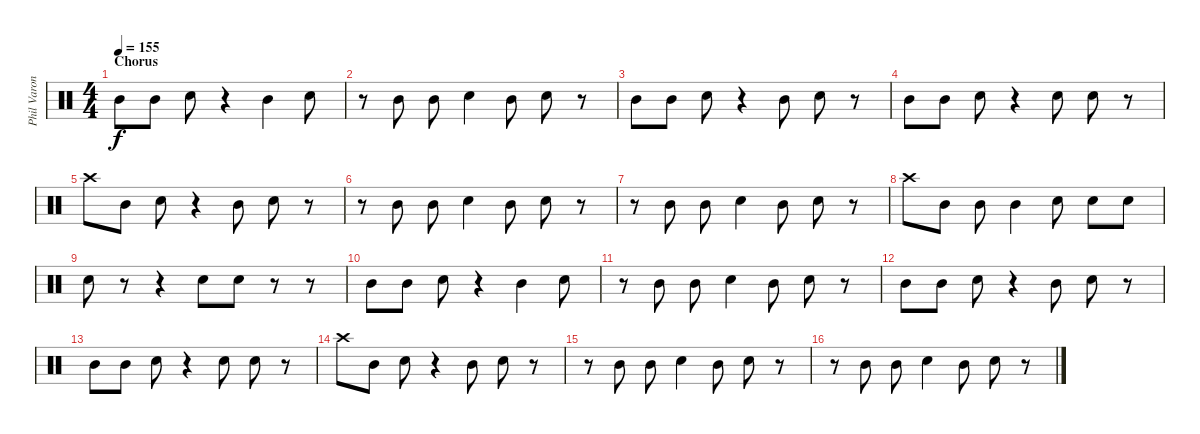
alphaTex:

\track ("Phil Varone" "Phil Varon") {instrument percussion}
\staff {score}
\articulation defaults
\ts (4 4)
\section ("" "Chorus")
\tempo 155
\clef neutral
\ks c "Mid Tom (hit)".8{dy f} "Mid Tom (hit)".8 "Snare (hit) 2".8
r.4 "Mid Tom (hit)".4 "Snare (hit) 2".8 |
r.8 "Mid Tom (hit)".8 "Mid Tom (hit)".8 "Snare (hit) 2".4 "Mid Tom (hit)".8 "Snare (hit) 2".8 r.8 |
"Mid Tom (hit)".8 "Mid Tom (hit)".8 "Snare (hit) 2".8 r.4 "Mid Tom (hit)".8 "Snare (hit) 2".8 r.8 |
"Mid Tom (hit)".8 "Mid Tom (hit)".8 "Snare (hit) 2".8 r.4 "Snare (hit) 2".8 "Snare (hit) 2".8 r.8 |
"Crash high (hit)".8 "Mid Tom (hit)".8 "Snare (hit) 2".8 r.4 "Mid Tom (hit)".8 "Snare (hit) 2".8 r.8 |
r.8 "Mid Tom (hit)".8 "Mid Tom (hit)".8 "Snare (hit) 2".4 "Mid Tom (hit)".8 "Snare (hit) 2".8 r.8 |
r.8 "Mid Tom (hit)".8 "Mid Tom (hit)".8 "Snare (hit) 2".4 "Mid Tom (hit)".8 "Snare (hit) 2".8 r.8 |
"Crash high (hit)".8 "Mid Tom (hit)".8 "Mid Tom (hit)".8 "Mid Tom (hit)".4 "Snare (hit) 2".8 "Snare (hit) 2".8 "Snare (hit) 2".8 |
"Snare (hit) 2".8 r.8 r.4 "Snare (hit) 2".8 "Snare (hit) 2".8 r.8 r.8 |
"Mid Tom (hit)".8 "Mid Tom (hit)".8 "Snare (hit) 2".8 r.4 "Mid Tom (hit)".4 "Snare (hit) 2".8 |
r.8 "Mid Tom (hit)".8 "Mid Tom (hit)".8 "Snare (hit) 2".4 "Mid Tom (hit)".8 "Snare (hit) 2".8 r.8 |
"Mid Tom (hit)".8 "Mid Tom (hit)".8 "Snare (hit) 2".8 r.4 "Mid Tom (hit)".8 "Snare (hit) 2".8 r.8 |
"Mid Tom (hit)".8 "Mid Tom (hit)".8 "Snare (hit) 2".8 r.4 "Snare (hit) 2".8 "Snare (hit) 2".8 r.8 |
"Crash high (hit)".8 "Mid Tom (hit)".8 "Snare (hit) 2".8 r.4 "Mid Tom (hit)".8 "Snare (hit) 2".8 r.8 |
r.8 "Mid Tom (hit)".8 "Mid Tom (hit)".8 "Snare (hit) 2".4 "Mid Tom (hit)".8 "Snare (hit) 2".8 r.8 |
r.8 "Mid Tom (hit)".8 "Mid Tom (hit)".8 "Snare (hit) 2".4 "Mid Tom (hit)".8 "Snare (hit) 2".8 r.8
